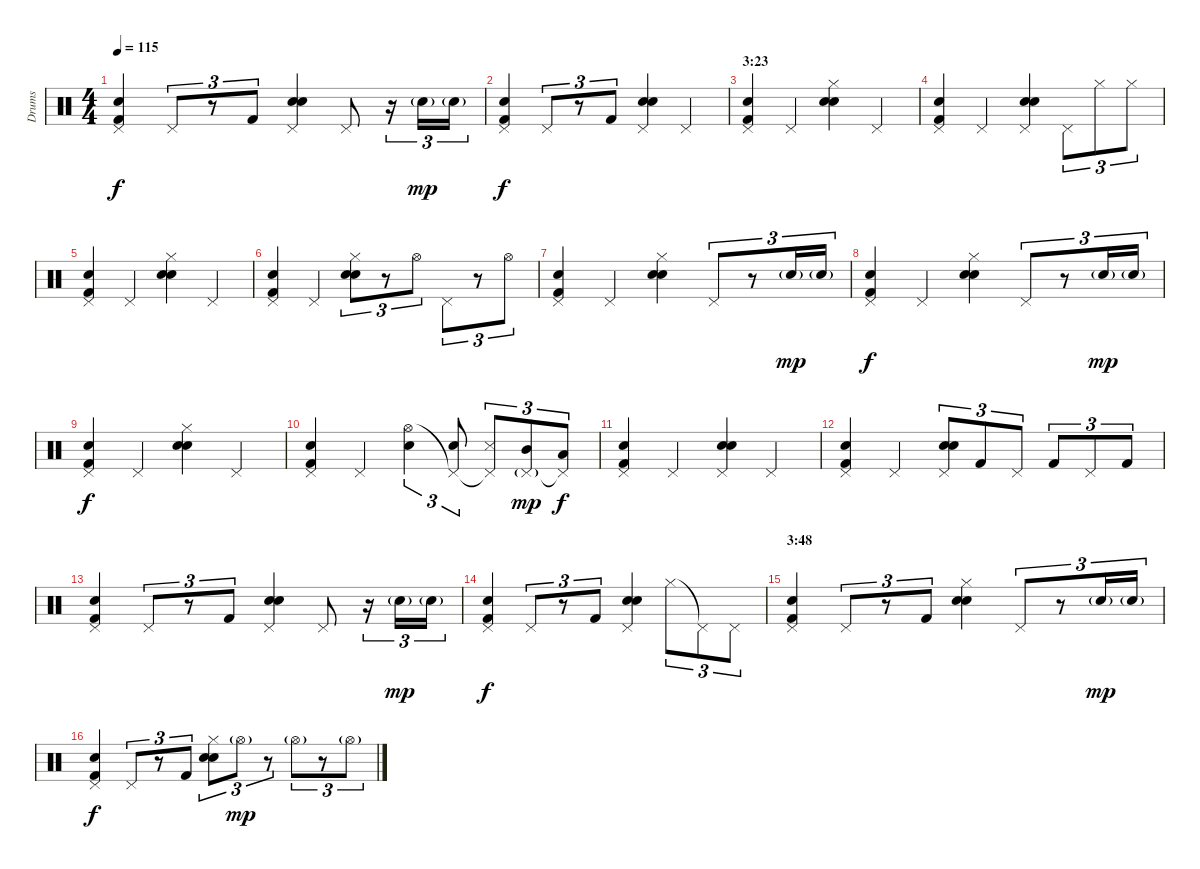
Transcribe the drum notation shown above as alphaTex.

\track ("Drums" "Drums") {instrument percussion}
\staff {score}
\articulation defaults
\ts (4 4)
\tempo 115
\clef neutral
\ks c
("Pedal Hi-Hat (hit)" "Hand Clap (hit)" "Kick (hit) 2").4{dy f} "Pedal Hi-Hat (hit)".8{tu (3 2)} r.8{tu (3 2)} "Kick (hit) 2".8{tu (3 2)} ("Pedal Hi-Hat (hit)" "Hand Clap (hit)" "Electric Snare (hit)").4 "Pedal Hi-Hat (hit)".8 r.16{tu (3 2)} "Electric Snare (hit)"{g}.16{tu (3 2) dy mp} "Electric Snare (hit)"{g}.16{tu (3 2)} |
("Pedal Hi-Hat (hit)" "Hand Clap (hit)" "Kick (hit) 2").4{dy f} "Pedal Hi-Hat (hit)".8{tu (3 2)} r.8{tu (3 2)} "Kick (hit) 2".8{tu (3 2)} ("Pedal Hi-Hat (hit)" "Hand Clap (hit)" "Electric Snare (hit)").4 "Pedal Hi-Hat (hit)".4 |
\section ("" "3:23")
("Pedal Hi-Hat (hit)" "Hand Clap (hit)" "Kick (hit) 2").4 "Pedal Hi-Hat (hit)".4 ("Hi-Hat (closed)" "Hand Clap (hit)" "Electric Snare (hit)").4 "Pedal Hi-Hat (hit)".4 |
("Pedal Hi-Hat (hit)" "Hand Clap (hit)" "Kick (hit) 2").4 "Pedal Hi-Hat (hit)".4 ("Pedal Hi-Hat (hit)" "Hand Clap (hit)" "Electric Snare (hit)").4 "Pedal Hi-Hat (hit)".8{tu (3 2)} "Hi-Hat (closed)".8{tu (3 2)} "Hi-Hat (closed)".8{tu (3 2)} |
("Pedal Hi-Hat (hit)" "Hand Clap (hit)" "Kick (hit) 2").4 "Pedal Hi-Hat (hit)".4 ("Hi-Hat (closed)" "Hand Clap (hit)" "Electric Snare (hit)").4 "Pedal Hi-Hat (hit)".4 |
("Pedal Hi-Hat (hit)" "Hand Clap (hit)" "Kick (hit) 2").4 "Pedal Hi-Hat (hit)".4 ("Hi-Hat (closed)" "Hand Clap (hit)" "Electric Snare (hit)").8{tu (3 2)} r.8{tu (3 2)} "Hi-Hat (open)".8{tu (3 2)} "Pedal Hi-Hat (hit)".8{tu (3 2)} r.8{tu (3 2)} "Hi-Hat (open)".8{tu (3 2)} |
("Pedal Hi-Hat (hit)" "Hand Clap (hit)" "Kick (hit) 2").4 "Pedal Hi-Hat (hit)".4 ("Hi-Hat (closed)" "Hand Clap (hit)" "Electric Snare (hit)").4 "Pedal Hi-Hat (hit)".8{tu (3 2)} r.8{tu (3 2)} "Electric Snare (hit)"{g}.16{tu (3 2) dy mp} "Electric Snare (hit)"{g}.16{tu (3 2)} |
("Pedal Hi-Hat (hit)" "Hand Clap (hit)" "Kick (hit) 2").4{dy f} "Pedal Hi-Hat (hit)".4 ("Hi-Hat (closed)" "Hand Clap (hit)" "Electric Snare (hit)").4 "Pedal Hi-Hat (hit)".8{tu (3 2)} r.8{tu (3 2)} "Electric Snare (hit)"{g}.16{tu (3 2) dy mp} "Electric Snare (hit)"{g}.16{tu (3 2)} |
("Pedal Hi-Hat (hit)" "Hand Clap (hit)" "Kick (hit) 2").4{dy f} "Pedal Hi-Hat (hit)".4 ("Hi-Hat (closed)" "Hand Clap (hit)" "Electric Snare (hit)").4 "Pedal Hi-Hat (hit)".4 |
("Pedal Hi-Hat (hit)" "Hand Clap (hit)" "Kick (hit) 2").4 "Pedal Hi-Hat (hit)".4 ("Hi-Hat (open)" "Hand Clap (hit)").4{tu (3 2)} ("Pedal Hi-Hat (hit)"{t} "Electric Snare (hit)").8{tu (3 2)} ("Pedal Hi-Hat (hit)"{t} "Snare (side stick) 3").8{tu (3 2)} ("Pedal Hi-Hat (hit)"{g} "Mid Tom (hit)").8{tu (3 2) dy mp} ("Pedal Hi-Hat (hit)"{t} "Low Tom (hit)").8{tu (3 2) dy f} |
("Pedal Hi-Hat (hit)" "Hand Clap (hit)" "Kick (hit) 2").4 "Pedal Hi-Hat (hit)".4 ("Pedal Hi-Hat (hit)" "Hand Clap (hit)" "Electric Snare (hit)").4 "Pedal Hi-Hat (hit)".4 |
("Pedal Hi-Hat (hit)" "Hand Clap (hit)" "Kick (hit) 2").4 "Pedal Hi-Hat (hit)".4 ("Pedal Hi-Hat (hit)" "Hand Clap (hit)" "Electric Snare (hit)").8{tu (3 2)} "Kick (hit) 2".8{tu (3 2)} "Pedal Hi-Hat (hit)".8{tu (3 2)} "Kick (hit) 2".8{tu (3 2)} "Pedal Hi-Hat (hit)".8{tu (3 2)} "Kick (hit) 2".8{tu (3 2)} |
("Pedal Hi-Hat (hit)" "Hand Clap (hit)" "Kick (hit) 2").4 "Pedal Hi-Hat (hit)".8{tu (3 2)} r.8{tu (3 2)} "Kick (hit) 2".8{tu (3 2)} ("Pedal Hi-Hat (hit)" "Hand Clap (hit)" "Electric Snare (hit)").4 "Pedal Hi-Hat (hit)".8 r.16{tu (3 2)} "Electric Snare (hit)"{g}.16{tu (3 2) dy mp} "Electric Snare (hit)"{g}.16{tu (3 2)} |
("Pedal Hi-Hat (hit)" "Hand Clap (hit)" "Kick (hit) 2").4{dy f} "Pedal Hi-Hat (hit)".8{tu (3 2)} r.8{tu (3 2)} "Kick (hit) 2".8{tu (3 2)} ("Pedal Hi-Hat (hit)" "Hand Clap (hit)" "Electric Snare (hit)").4 "Hi-Hat (closed)".8{tu (3 2)} "Pedal Hi-Hat (hit)"{t}.8{tu (3 2)} "Pedal Hi-Hat (hit)".8{tu (3 2)} |
\section ("" "3:48")
("Pedal Hi-Hat (hit)" "Hand Clap (hit)" "Kick (hit) 2").4 "Pedal Hi-Hat (hit)".8{tu (3 2)} r.8{tu (3 2)} "Kick (hit) 2".8{tu (3 2)} ("Hi-Hat (closed)" "Hand Clap (hit)" "Electric Snare (hit)").4 "Pedal Hi-Hat (hit)".8{tu (3 2)} r.8{tu (3 2)} "Electric Snare (hit)"{g}.16{tu (3 2) dy mp} "Electric Snare (hit)"{g}.16{tu (3 2)} |
("Pedal Hi-Hat (hit)" "Hand Clap (hit)" "Kick (hit) 2").4{dy f} "Pedal Hi-Hat (hit)".8{tu (3 2)} r.8{tu (3 2)} "Kick (hit) 2".8{tu (3 2)} ("Hi-Hat (closed)" "Hand Clap (hit)" "Electric Snare (hit)").8{tu (3 2)} "Hi-Hat (open)"{g}.8{tu (3 2) dy mp} r.8{tu (3 2)} "Hi-Hat (open)"{g}.8{tu (3 2)} r.8{tu (3 2)} "Hi-Hat (open)"{g}.8{tu (3 2)}
